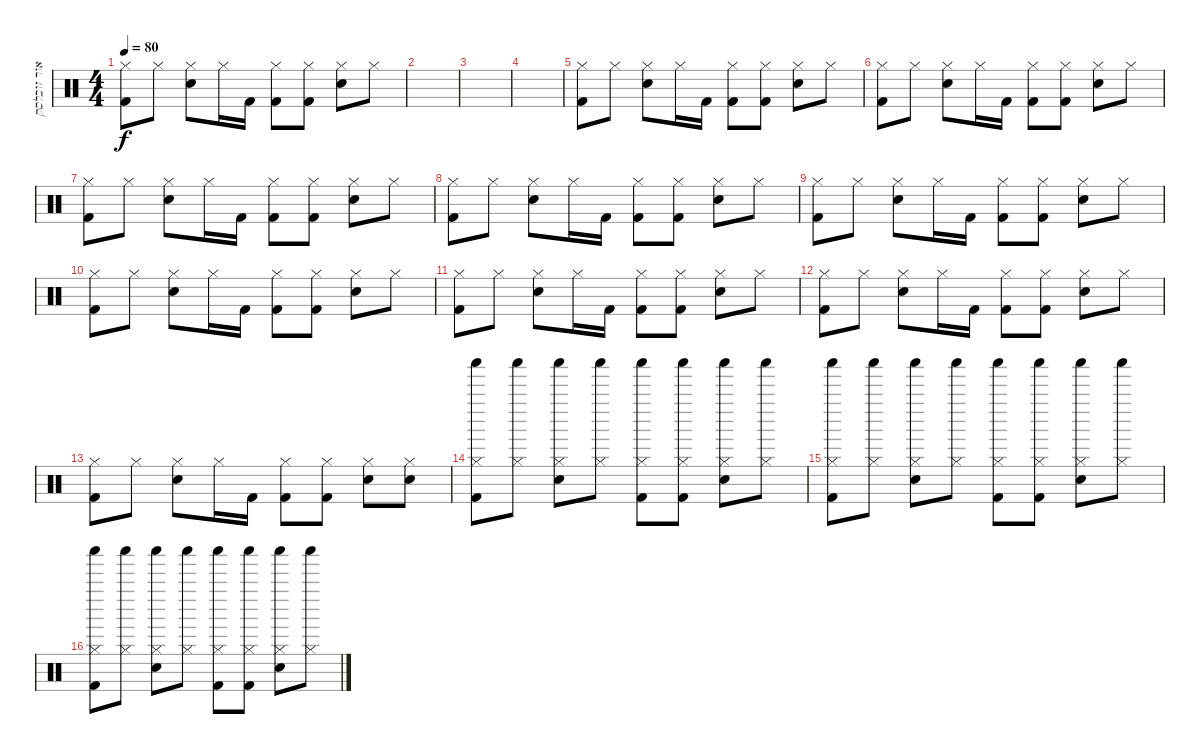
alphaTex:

\track ("אור זובלסקי" "אור זובלסק") {instrument percussion}
\staff {score}
\articulation defaults
\ts (4 4)
\tempo 80
\clef neutral
\ks c
("Hi-Hat (closed)" "Kick (hit) 2").8{dy f} "Hi-Hat (closed)".8 ("Hi-Hat (closed)" "Snare (hit) 2").8 "Hi-Hat (closed)".16 "Kick (hit) 2".16 ("Hi-Hat (closed)" "Kick (hit) 2").8 ("Hi-Hat (closed)" "Kick (hit) 2").8 ("Hi-Hat (closed)" "Snare (hit) 2").8 "Hi-Hat (closed)".8 |
|
|
|
("Hi-Hat (closed)" "Kick (hit) 2").8 "Hi-Hat (closed)".8 ("Hi-Hat (closed)" "Snare (hit) 2").8 "Hi-Hat (closed)".16 "Kick (hit) 2".16 ("Hi-Hat (closed)" "Kick (hit) 2").8 ("Hi-Hat (closed)" "Kick (hit) 2").8 ("Hi-Hat (closed)" "Snare (hit) 2").8 "Hi-Hat (closed)".8 |
("Hi-Hat (closed)" "Kick (hit) 2").8 "Hi-Hat (closed)".8 ("Hi-Hat (closed)" "Snare (hit) 2").8 "Hi-Hat (closed)".16 "Kick (hit) 2".16 ("Hi-Hat (closed)" "Kick (hit) 2").8 ("Hi-Hat (closed)" "Kick (hit) 2").8 ("Hi-Hat (closed)" "Snare (hit) 2").8 "Hi-Hat (closed)".8 |
("Hi-Hat (closed)" "Kick (hit) 2").8 "Hi-Hat (closed)".8 ("Hi-Hat (closed)" "Snare (hit) 2").8 "Hi-Hat (closed)".16 "Kick (hit) 2".16 ("Hi-Hat (closed)" "Kick (hit) 2").8 ("Hi-Hat (closed)" "Kick (hit) 2").8 ("Hi-Hat (closed)" "Snare (hit) 2").8 "Hi-Hat (closed)".8 |
("Hi-Hat (closed)" "Kick (hit) 2").8 "Hi-Hat (closed)".8 ("Hi-Hat (closed)" "Snare (hit) 2").8 "Hi-Hat (closed)".16 "Kick (hit) 2".16 ("Hi-Hat (closed)" "Kick (hit) 2").8 ("Hi-Hat (closed)" "Kick (hit) 2").8 ("Hi-Hat (closed)" "Snare (hit) 2").8 "Hi-Hat (closed)".8 |
("Hi-Hat (closed)" "Kick (hit) 2").8 "Hi-Hat (closed)".8 ("Hi-Hat (closed)" "Snare (hit) 2").8 "Hi-Hat (closed)".16 "Kick (hit) 2".16 ("Hi-Hat (closed)" "Kick (hit) 2").8 ("Hi-Hat (closed)" "Kick (hit) 2").8 ("Hi-Hat (closed)" "Snare (hit) 2").8 "Hi-Hat (closed)".8 |
("Hi-Hat (closed)" "Kick (hit) 2").8 "Hi-Hat (closed)".8 ("Hi-Hat (closed)" "Snare (hit) 2").8 "Hi-Hat (closed)".16 "Kick (hit) 2".16 ("Hi-Hat (closed)" "Kick (hit) 2").8 ("Hi-Hat (closed)" "Kick (hit) 2").8 ("Hi-Hat (closed)" "Snare (hit) 2").8 "Hi-Hat (closed)".8 |
("Hi-Hat (closed)" "Kick (hit) 2").8 "Hi-Hat (closed)".8 ("Hi-Hat (closed)" "Snare (hit) 2").8 "Hi-Hat (closed)".16 "Kick (hit) 2".16 ("Hi-Hat (closed)" "Kick (hit) 2").8 ("Hi-Hat (closed)" "Kick (hit) 2").8 ("Hi-Hat (closed)" "Snare (hit) 2").8 "Hi-Hat (closed)".8 |
("Hi-Hat (closed)" "Kick (hit) 2").8 "Hi-Hat (closed)".8 ("Hi-Hat (closed)" "Snare (hit) 2").8 "Hi-Hat (closed)".16 "Kick (hit) 2".16 ("Hi-Hat (closed)" "Kick (hit) 2").8 ("Hi-Hat (closed)" "Kick (hit) 2").8 ("Hi-Hat (closed)" "Snare (hit) 2").8 "Hi-Hat (closed)".8 |
("Hi-Hat (closed)" "Kick (hit) 2").8 "Hi-Hat (closed)".8 ("Hi-Hat (closed)" "Snare (hit) 2").8 "Hi-Hat (closed)".16 "Kick (hit) 2".16 ("Hi-Hat (closed)" "Kick (hit) 2").8 ("Hi-Hat (closed)" "Kick (hit) 2").8 ("Hi-Hat (closed)" "Snare (hit) 2").8 ("Hi-Hat (closed)" "Snare (hit) 2").8 |
("Hi-Hat (closed)" "Shaker (hit)" "Kick (hit) 2").8{volume 16} ("Hi-Hat (closed)" "Shaker (hit)").8 ("Hi-Hat (closed)" "Shaker (hit)" "Electric Snare (hit)").8 ("Hi-Hat (closed)" "Shaker (hit)").8 ("Hi-Hat (closed)" "Shaker (hit)" "Kick (hit) 2").8 ("Hi-Hat (closed)" "Shaker (hit)" "Kick (hit) 2").8 ("Hi-Hat (closed)" "Shaker (hit)" "Electric Snare (hit)").8 ("Hi-Hat (closed)" "Shaker (hit)").8 |
("Hi-Hat (closed)" "Shaker (hit)" "Kick (hit) 2").8 ("Hi-Hat (closed)" "Shaker (hit)").8 ("Hi-Hat (closed)" "Shaker (hit)" "Electric Snare (hit)").8 ("Hi-Hat (closed)" "Shaker (hit)").8 ("Hi-Hat (closed)" "Shaker (hit)" "Kick (hit) 2").8 ("Hi-Hat (closed)" "Shaker (hit)" "Kick (hit) 2").8 ("Hi-Hat (closed)" "Shaker (hit)" "Electric Snare (hit)").8 ("Hi-Hat (closed)" "Shaker (hit)").8 |
("Hi-Hat (closed)" "Shaker (hit)" "Kick (hit) 2").8 ("Hi-Hat (closed)" "Shaker (hit)").8 ("Hi-Hat (closed)" "Shaker (hit)" "Electric Snare (hit)").8 ("Hi-Hat (closed)" "Shaker (hit)").8 ("Hi-Hat (closed)" "Shaker (hit)" "Kick (hit) 2").8 ("Hi-Hat (closed)" "Shaker (hit)" "Kick (hit) 2").8 ("Hi-Hat (closed)" "Shaker (hit)" "Electric Snare (hit)").8 ("Hi-Hat (closed)" "Shaker (hit)").8
